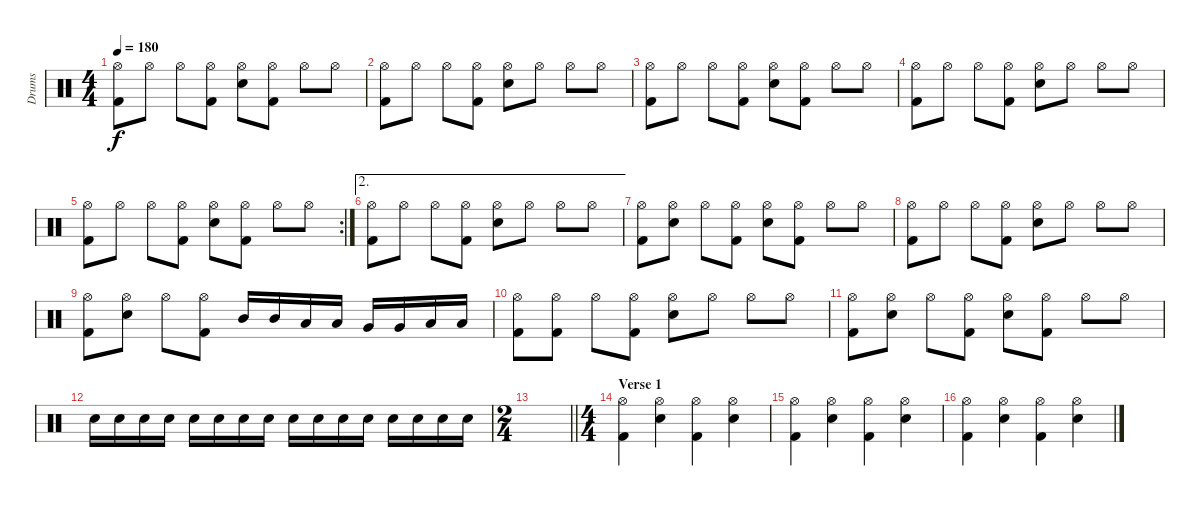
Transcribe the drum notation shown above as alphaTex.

\track ("Drums" "Drums") {instrument percussion}
\staff {score}
\articulation defaults
\ts (4 4)
\tempo 180
\clef neutral
\ks c
("Hi-Hat (open)" "Kick (hit) 2").8{dy f} "Hi-Hat (open)".8 "Hi-Hat (open)".8 ("Hi-Hat (open)" "Kick (hit) 2").8 ("Hi-Hat (open)" "Electric Snare (hit)").8 ("Hi-Hat (open)" "Kick (hit) 2").8 "Hi-Hat (open)".8 "Hi-Hat (open)".8 |
("Hi-Hat (open)" "Kick (hit) 2").8 "Hi-Hat (open)".8 "Hi-Hat (open)".8 ("Hi-Hat (open)" "Kick (hit) 2").8 ("Hi-Hat (open)" "Electric Snare (hit)").8 "Hi-Hat (open)".8 "Hi-Hat (open)".8 "Hi-Hat (open)".8 |
("Hi-Hat (open)" "Kick (hit) 2").8 "Hi-Hat (open)".8 "Hi-Hat (open)".8 ("Hi-Hat (open)" "Kick (hit) 2").8 ("Hi-Hat (open)" "Electric Snare (hit)").8 ("Hi-Hat (open)" "Kick (hit) 2").8 "Hi-Hat (open)".8 "Hi-Hat (open)".8 |
("Hi-Hat (open)" "Kick (hit) 2").8 "Hi-Hat (open)".8 "Hi-Hat (open)".8 ("Hi-Hat (open)" "Kick (hit) 2").8 ("Hi-Hat (open)" "Electric Snare (hit)").8 "Hi-Hat (open)".8 "Hi-Hat (open)".8 "Hi-Hat (open)".8 |
\rc 2
("Hi-Hat (open)" "Kick (hit) 2").8 "Hi-Hat (open)".8 "Hi-Hat (open)".8 ("Hi-Hat (open)" "Kick (hit) 2").8 ("Hi-Hat (open)" "Electric Snare (hit)").8 ("Hi-Hat (open)" "Kick (hit) 2").8 "Hi-Hat (open)".8 "Hi-Hat (open)".8 |
\ae 2
("Hi-Hat (open)" "Kick (hit) 2").8 "Hi-Hat (open)".8 "Hi-Hat (open)".8 ("Hi-Hat (open)" "Kick (hit) 2").8 ("Hi-Hat (open)" "Electric Snare (hit)").8 "Hi-Hat (open)".8 "Hi-Hat (open)".8 "Hi-Hat (open)".8 |
("Hi-Hat (open)" "Kick (hit) 2").8 ("Hi-Hat (open)" "Electric Snare (hit)").8 "Hi-Hat (open)".8 ("Hi-Hat (open)" "Kick (hit) 2").8 ("Hi-Hat (open)" "Electric Snare (hit)").8 ("Hi-Hat (open)" "Kick (hit) 2").8 "Hi-Hat (open)".8 "Hi-Hat (open)".8 |
("Hi-Hat (open)" "Kick (hit) 2").8 "Hi-Hat (open)".8 "Hi-Hat (open)".8 ("Hi-Hat (open)" "Kick (hit) 2").8 ("Hi-Hat (open)" "Electric Snare (hit)").8 "Hi-Hat (open)".8 "Hi-Hat (open)".8 "Hi-Hat (open)".8 |
("Hi-Hat (open)" "Kick (hit) 2").8 ("Hi-Hat (open)" "Electric Snare (hit)").8 "Hi-Hat (open)".8 ("Hi-Hat (open)" "Kick (hit) 2").8 "Mid Tom (hit)".16 "Mid Tom (hit)".16 "Low Tom (hit)".16 "Low Tom (hit)".16 "Very Low Tom (hit)".16 "Very Low Tom (hit)".16 "Low Floor Tom (hit)".16 "Low Floor Tom (hit)".16 |
("Hi-Hat (open)" "Kick (hit) 2").8 ("Hi-Hat (open)" "Kick (hit) 2").8 "Hi-Hat (open)".8 ("Hi-Hat (open)" "Kick (hit) 2").8 ("Hi-Hat (open)" "Electric Snare (hit)").8 "Hi-Hat (open)".8 "Hi-Hat (open)".8 "Hi-Hat (open)".8 |
("Hi-Hat (open)" "Kick (hit) 2").8 ("Hi-Hat (open)" "Electric Snare (hit)").8 "Hi-Hat (open)".8 ("Hi-Hat (open)" "Kick (hit) 2").8 ("Hi-Hat (open)" "Electric Snare (hit)").8 ("Hi-Hat (open)" "Kick (hit) 2").8 "Hi-Hat (open)".8 "Hi-Hat (open)".8 |
"Electric Snare (hit)".16 "Electric Snare (hit)".16 "Electric Snare (hit)".16 "Electric Snare (hit)".16 "Electric Snare (hit)".16 "Electric Snare (hit)".16 "Electric Snare (hit)".16 "Electric Snare (hit)".16 "Electric Snare (hit)".16 "Electric Snare (hit)".16 "Electric Snare (hit)".16 "Electric Snare (hit)".16 "Electric Snare (hit)".16 "Electric Snare (hit)".16 "Electric Snare (hit)".16 "Electric Snare (hit)".16 |
\ts (2 4)
\barLineRight lightlight
|
\ts (4 4)
\section ("" "Verse 1")
("Hi-Hat (open)" "Kick (hit) 2").4 ("Hi-Hat (open)" "Electric Snare (hit)").4 ("Hi-Hat (open)" "Kick (hit) 2").4 ("Hi-Hat (open)" "Electric Snare (hit)").4 |
("Hi-Hat (open)" "Kick (hit) 2").4 ("Hi-Hat (open)" "Electric Snare (hit)").4 ("Hi-Hat (open)" "Kick (hit) 2").4 ("Hi-Hat (open)" "Electric Snare (hit)").4 |
("Hi-Hat (open)" "Kick (hit) 2").4 ("Hi-Hat (open)" "Electric Snare (hit)").4 ("Hi-Hat (open)" "Kick (hit) 2").4 ("Hi-Hat (open)" "Electric Snare (hit)").4
